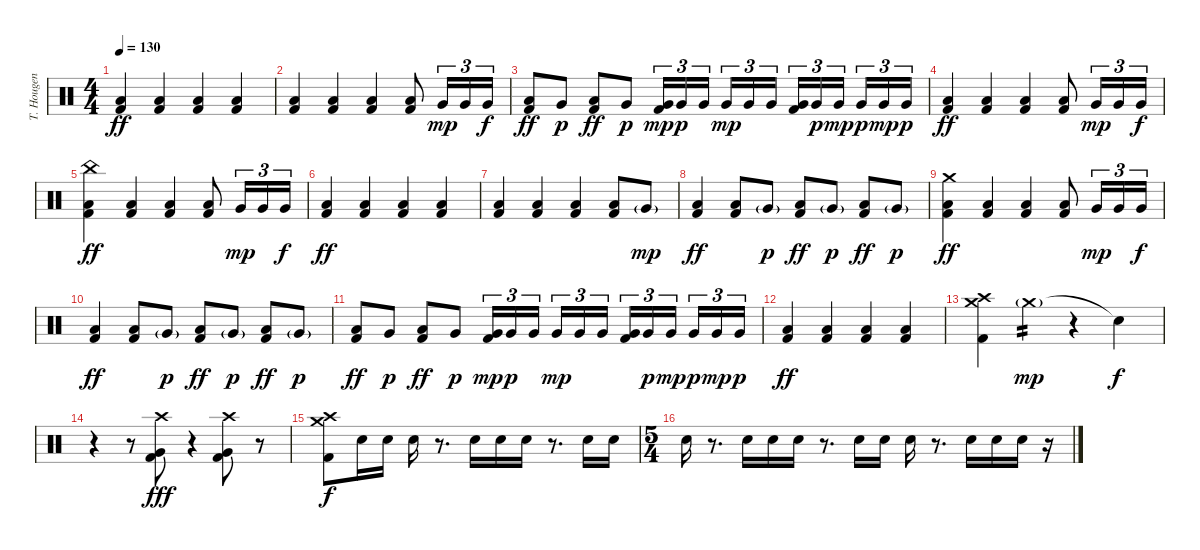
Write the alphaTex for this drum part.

\track ("T. Hougen - Drums" "T. Hougen ") {instrument percussion}
\staff {score}
\articulation defaults
\ts (4 4)
\tempo 130
\clef neutral
\ks c
("Low Floor Tom (hit)" "Kick (hit) 2").4{dy ff} ("Low Floor Tom (hit)" "Kick (hit) 2").4 ("Low Floor Tom (hit)" "Kick (hit) 2").4 ("Low Floor Tom (hit)" "Kick (hit) 2").4 |
("Low Floor Tom (hit)" "Kick (hit) 2").4 ("Low Floor Tom (hit)" "Kick (hit) 2").4 ("Low Floor Tom (hit)" "Kick (hit) 2").4 ("Low Floor Tom (hit)" "Kick (hit) 2").8 "Very Low Tom (hit)".16{tu (3 2) dy mp} "Very Low Tom (hit)".16{tu (3 2)} "Very Low Tom (hit)".16{tu (3 2) dy f} |
("Low Floor Tom (hit)" "Kick (hit) 2").8{dy ff} "Very Low Tom (hit)".8{dy p} ("Low Floor Tom (hit)" "Kick (hit) 2").8{dy ff} "Very Low Tom (hit)".8{dy p} ("Very Low Tom (hit)" "Kick (hit) 2").16{tu (3 2) dy mp} "Very Low Tom (hit)".16{tu (3 2) dy p} "Very Low Tom (hit)".16{tu (3 2)} "Very Low Tom (hit)".16{tu (3 2) dy mp} "Very Low Tom (hit)".16{tu (3 2)} "Very Low Tom (hit)".16{tu (3 2)} ("Very Low Tom (hit)" "Kick (hit) 2").16{tu (3 2)} "Very Low Tom (hit)".16{tu (3 2) dy p} "Very Low Tom (hit)".16{tu (3 2) dy mp} "Very Low Tom (hit)".16{tu (3 2) dy p} "Very Low Tom (hit)".16{tu (3 2) dy mp} "Very Low Tom (hit)".16{tu (3 2) dy p} |
("Low Floor Tom (hit)" "Kick (hit) 2").4{dy ff} ("Low Floor Tom (hit)" "Kick (hit) 2").4 ("Low Floor Tom (hit)" "Kick (hit) 2").4 ("Low Floor Tom (hit)" "Kick (hit) 2").8 "Very Low Tom (hit)".16{tu (3 2) dy mp} "Very Low Tom (hit)".16{tu (3 2)} "Very Low Tom (hit)".16{tu (3 2) dy f} |
("China (hit)" "Low Floor Tom (hit)" "Kick (hit) 2").4{dy ff} ("Low Floor Tom (hit)" "Kick (hit) 2").4 ("Low Floor Tom (hit)" "Kick (hit) 2").4 ("Low Floor Tom (hit)" "Kick (hit) 2").8 "Very Low Tom (hit)".16{tu (3 2) dy mp} "Very Low Tom (hit)".16{tu (3 2)} "Very Low Tom (hit)".16{tu (3 2) dy f} |
("Low Floor Tom (hit)" "Kick (hit) 2").4{dy ff} ("Low Floor Tom (hit)" "Kick (hit) 2").4 ("Low Floor Tom (hit)" "Kick (hit) 2").4 ("Low Floor Tom (hit)" "Kick (hit) 2").4 |
("Low Floor Tom (hit)" "Kick (hit) 2").4 ("Low Floor Tom (hit)" "Kick (hit) 2").4 ("Low Floor Tom (hit)" "Kick (hit) 2").4 ("Low Floor Tom (hit)" "Kick (hit) 2").8 "Very Low Tom (hit)"{g}.8{dy mp} |
("Low Floor Tom (hit)" "Kick (hit) 2").4{dy ff} ("Low Floor Tom (hit)" "Kick (hit) 2").8 "Very Low Tom (hit)"{g}.8{dy p} ("Low Floor Tom (hit)" "Kick (hit) 2").8{dy ff} "Very Low Tom (hit)"{g}.8{dy p} ("Low Floor Tom (hit)" "Kick (hit) 2").8{dy ff} "Very Low Tom (hit)"{g}.8{dy p} |
("Crash medium (hit)" "Low Floor Tom (hit)" "Kick (hit) 2").4{dy ff} ("Low Floor Tom (hit)" "Kick (hit) 2").4 ("Low Floor Tom (hit)" "Kick (hit) 2").4 ("Low Floor Tom (hit)" "Kick (hit) 2").8 "Very Low Tom (hit)".16{tu (3 2) dy mp} "Very Low Tom (hit)".16{tu (3 2)} "Very Low Tom (hit)".16{tu (3 2) dy f} |
("Low Floor Tom (hit)" "Kick (hit) 2").4{dy ff} ("Low Floor Tom (hit)" "Kick (hit) 2").8 "Very Low Tom (hit)"{g}.8{dy p} ("Low Floor Tom (hit)" "Kick (hit) 2").8{dy ff} "Very Low Tom (hit)"{g}.8{dy p} ("Low Floor Tom (hit)" "Kick (hit) 2").8{dy ff} "Very Low Tom (hit)"{g}.8{dy p} |
("Low Floor Tom (hit)" "Kick (hit) 2").8{dy ff} "Very Low Tom (hit)".8{dy p} ("Low Floor Tom (hit)" "Kick (hit) 2").8{dy ff} "Very Low Tom (hit)".8{dy p} ("Very Low Tom (hit)" "Kick (hit) 2").16{tu (3 2) dy mp} "Very Low Tom (hit)".16{tu (3 2) dy p} "Very Low Tom (hit)".16{tu (3 2)} "Very Low Tom (hit)".16{tu (3 2) dy mp} "Very Low Tom (hit)".16{tu (3 2)} "Very Low Tom (hit)".16{tu (3 2)} ("Very Low Tom (hit)" "Kick (hit) 2").16{tu (3 2)} "Very Low Tom (hit)".16{tu (3 2) dy p} "Very Low Tom (hit)".16{tu (3 2) dy mp} "Very Low Tom (hit)".16{tu (3 2) dy p} "Very Low Tom (hit)".16{tu (3 2) dy mp} "Very Low Tom (hit)".16{tu (3 2) dy p} |
("Low Floor Tom (hit)" "Kick (hit) 2").4{dy ff} ("Low Floor Tom (hit)" "Kick (hit) 2").4 ("Low Floor Tom (hit)" "Kick (hit) 2").4 ("Low Floor Tom (hit)" "Kick (hit) 2").4 |
("Crash high (hit)" "Crash medium (hit)" "Kick (hit) 2").4 "Crash medium (hit)"{g}.4{tp 2 dy mp} r.4 "Snare (hit)"{t}.4{dy f} |
r.4 r.8 ("Crash high (hit)" "Very Low Tom (hit)" "Kick (hit) 2").8{dy fff} r.4 ("Crash high (hit)" "Very Low Tom (hit)" "Kick (hit) 2").8 r.8 |
("Crash medium (hit)" "Crash high (hit)" "Kick (hit) 2").8{dy f} "Electric Snare (hit)".16 "Electric Snare (hit)".16 "Electric Snare (hit)".16 r.8{d} "Electric Snare (hit)".16 "Electric Snare (hit)".16 "Electric Snare (hit)".16 r.8{d} "Electric Snare (hit)".16 "Electric Snare (hit)".16 |
\ts (5 4)
"Electric Snare (hit)".16 r.8{d} "Electric Snare (hit)".16 "Electric Snare (hit)".16 "Electric Snare (hit)".16 r.8{d} "Electric Snare (hit)".16 "Electric Snare (hit)".16 "Electric Snare (hit)".16 r.8{d} "Electric Snare (hit)".16 "Electric Snare (hit)".16 "Electric Snare (hit)".16 r.16
